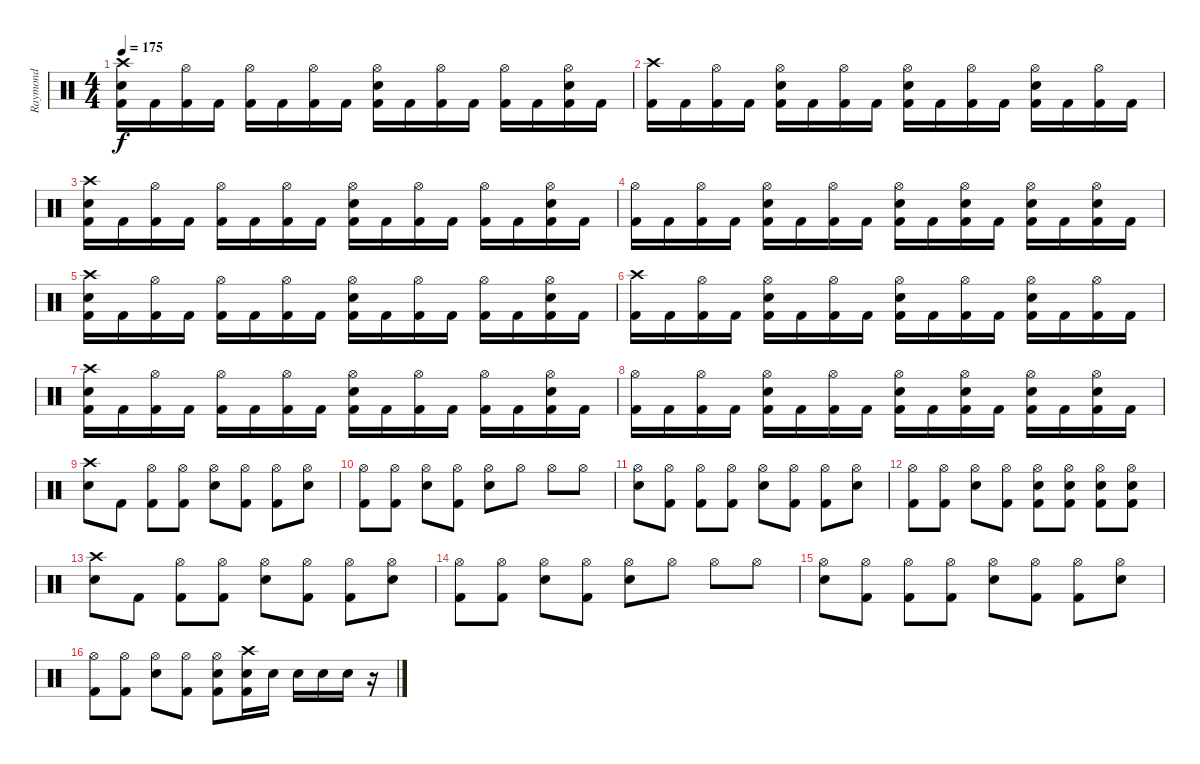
\track ("Raymond" "Raymond") {instrument percussion}
\staff {score}
\articulation defaults
\ts (4 4)
\tempo 175
\clef neutral
\ks c
("Crash high (hit)" "Electric Snare (hit)" "Kick (hit) 2").16{dy f} "Kick (hit) 2".16 ("Hi-Hat (open)" "Kick (hit) 2").16 "Kick (hit) 2".16 ("Hi-Hat (open)" "Kick (hit) 2").16 "Kick (hit) 2".16 ("Hi-Hat (open)" "Kick (hit) 2").16 "Kick (hit) 2".16 ("Hi-Hat (open)" "Electric Snare (hit)" "Kick (hit) 2").16 "Kick (hit) 2".16 ("Hi-Hat (open)" "Kick (hit) 2").16 "Kick (hit) 2".16 ("Hi-Hat (open)" "Kick (hit) 2").16 "Kick (hit) 2".16 ("Hi-Hat (open)" "Electric Snare (hit)" "Kick (hit) 2").16 "Kick (hit) 2".16 |
("Crash high (hit)" "Kick (hit) 2").16 "Kick (hit) 2".16 ("Hi-Hat (open)" "Kick (hit) 2").16 "Kick (hit) 2".16 ("Hi-Hat (open)" "Electric Snare (hit)" "Kick (hit) 2").16 "Kick (hit) 2".16 ("Hi-Hat (open)" "Kick (hit) 2").16 "Kick (hit) 2".16 ("Hi-Hat (open)" "Electric Snare (hit)" "Kick (hit) 2").16 "Kick (hit) 2".16 ("Hi-Hat (open)" "Kick (hit) 2").16 "Kick (hit) 2".16 ("Hi-Hat (open)" "Electric Snare (hit)" "Kick (hit) 2").16 "Kick (hit) 2".16 ("Hi-Hat (open)" "Kick (hit) 2").16 "Kick (hit) 2".16 |
("Crash high (hit)" "Electric Snare (hit)" "Kick (hit) 2").16 "Kick (hit) 2".16 ("Hi-Hat (open)" "Kick (hit) 2").16 "Kick (hit) 2".16 ("Hi-Hat (open)" "Kick (hit) 2").16 "Kick (hit) 2".16 ("Hi-Hat (open)" "Kick (hit) 2").16 "Kick (hit) 2".16 ("Hi-Hat (open)" "Electric Snare (hit)" "Kick (hit) 2").16 "Kick (hit) 2".16 ("Hi-Hat (open)" "Kick (hit) 2").16 "Kick (hit) 2".16 ("Hi-Hat (open)" "Kick (hit) 2").16 "Kick (hit) 2".16 ("Hi-Hat (open)" "Electric Snare (hit)" "Kick (hit) 2").16 "Kick (hit) 2".16 |
("Hi-Hat (open)" "Kick (hit) 2").16 "Kick (hit) 2".16 ("Hi-Hat (open)" "Kick (hit) 2").16 "Kick (hit) 2".16 ("Hi-Hat (open)" "Electric Snare (hit)" "Kick (hit) 2").16 "Kick (hit) 2".16 ("Hi-Hat (open)" "Kick (hit) 2").16 "Kick (hit) 2".16 ("Hi-Hat (open)" "Electric Snare (hit)" "Kick (hit) 2").16 "Kick (hit) 2".16 ("Hi-Hat (open)" "Electric Snare (hit)" "Kick (hit) 2").16 "Kick (hit) 2".16 ("Hi-Hat (open)" "Electric Snare (hit)" "Kick (hit) 2").16 "Kick (hit) 2".16 ("Hi-Hat (open)" "Electric Snare (hit)" "Kick (hit) 2").16 "Kick (hit) 2".16 |
("Crash high (hit)" "Electric Snare (hit)" "Kick (hit) 2").16 "Kick (hit) 2".16 ("Hi-Hat (open)" "Kick (hit) 2").16 "Kick (hit) 2".16 ("Hi-Hat (open)" "Kick (hit) 2").16 "Kick (hit) 2".16 ("Hi-Hat (open)" "Kick (hit) 2").16 "Kick (hit) 2".16 ("Hi-Hat (open)" "Electric Snare (hit)" "Kick (hit) 2").16 "Kick (hit) 2".16 ("Hi-Hat (open)" "Kick (hit) 2").16 "Kick (hit) 2".16 ("Hi-Hat (open)" "Kick (hit) 2").16 "Kick (hit) 2".16 ("Hi-Hat (open)" "Electric Snare (hit)" "Kick (hit) 2").16 "Kick (hit) 2".16 |
("Crash high (hit)" "Kick (hit) 2").16 "Kick (hit) 2".16 ("Hi-Hat (open)" "Kick (hit) 2").16 "Kick (hit) 2".16 ("Hi-Hat (open)" "Electric Snare (hit)" "Kick (hit) 2").16 "Kick (hit) 2".16 ("Hi-Hat (open)" "Kick (hit) 2").16 "Kick (hit) 2".16 ("Hi-Hat (open)" "Electric Snare (hit)" "Kick (hit) 2").16 "Kick (hit) 2".16 ("Hi-Hat (open)" "Kick (hit) 2").16 "Kick (hit) 2".16 ("Hi-Hat (open)" "Electric Snare (hit)" "Kick (hit) 2").16 "Kick (hit) 2".16 ("Hi-Hat (open)" "Kick (hit) 2").16 "Kick (hit) 2".16 |
("Crash high (hit)" "Electric Snare (hit)" "Kick (hit) 2").16 "Kick (hit) 2".16 ("Hi-Hat (open)" "Kick (hit) 2").16 "Kick (hit) 2".16 ("Hi-Hat (open)" "Kick (hit) 2").16 "Kick (hit) 2".16 ("Hi-Hat (open)" "Kick (hit) 2").16 "Kick (hit) 2".16 ("Hi-Hat (open)" "Electric Snare (hit)" "Kick (hit) 2").16 "Kick (hit) 2".16 ("Hi-Hat (open)" "Kick (hit) 2").16 "Kick (hit) 2".16 ("Hi-Hat (open)" "Kick (hit) 2").16 "Kick (hit) 2".16 ("Hi-Hat (open)" "Electric Snare (hit)" "Kick (hit) 2").16 "Kick (hit) 2".16 |
("Hi-Hat (open)" "Kick (hit) 2").16 "Kick (hit) 2".16 ("Hi-Hat (open)" "Kick (hit) 2").16 "Kick (hit) 2".16 ("Hi-Hat (open)" "Electric Snare (hit)" "Kick (hit) 2").16 "Kick (hit) 2".16 ("Hi-Hat (open)" "Kick (hit) 2").16 "Kick (hit) 2".16 ("Hi-Hat (open)" "Electric Snare (hit)" "Kick (hit) 2").16 "Kick (hit) 2".16 ("Hi-Hat (open)" "Electric Snare (hit)" "Kick (hit) 2").16 "Kick (hit) 2".16 ("Hi-Hat (open)" "Electric Snare (hit)" "Kick (hit) 2").16 "Kick (hit) 2".16 ("Hi-Hat (open)" "Electric Snare (hit)" "Kick (hit) 2").16 "Kick (hit) 2".16 |
("Crash high (hit)" "Electric Snare (hit)").8 "Kick (hit) 2".8 ("Hi-Hat (open)" "Kick (hit) 2").8 ("Hi-Hat (open)" "Kick (hit) 2").8 ("Hi-Hat (open)" "Electric Snare (hit)").8 ("Hi-Hat (open)" "Kick (hit) 2").8 ("Hi-Hat (open)" "Kick (hit) 2").8 ("Hi-Hat (open)" "Electric Snare (hit)").8 |
("Hi-Hat (open)" "Kick (hit) 2").8 ("Hi-Hat (open)" "Kick (hit) 2").8 ("Hi-Hat (open)" "Electric Snare (hit)").8 ("Hi-Hat (open)" "Kick (hit) 2").8 ("Hi-Hat (open)" "Electric Snare (hit)").8 "Hi-Hat (open)".8 "Hi-Hat (open)".8 "Hi-Hat (open)".8 |
("Hi-Hat (open)" "Electric Snare (hit)").8 ("Hi-Hat (open)" "Kick (hit) 2").8 ("Hi-Hat (open)" "Kick (hit) 2").8 ("Hi-Hat (open)" "Kick (hit) 2").8 ("Hi-Hat (open)" "Electric Snare (hit)").8 ("Hi-Hat (open)" "Kick (hit) 2").8 ("Hi-Hat (open)" "Kick (hit) 2").8 ("Hi-Hat (open)" "Electric Snare (hit)").8 |
("Hi-Hat (open)" "Kick (hit) 2").8 ("Hi-Hat (open)" "Kick (hit) 2").8 ("Hi-Hat (open)" "Electric Snare (hit)").8 ("Hi-Hat (open)" "Kick (hit) 2").8 ("Hi-Hat (open)" "Electric Snare (hit)" "Kick (hit) 2").8 ("Hi-Hat (open)" "Electric Snare (hit)" "Kick (hit) 2").8 ("Hi-Hat (open)" "Electric Snare (hit)" "Kick (hit) 2").8 ("Hi-Hat (open)" "Electric Snare (hit)" "Kick (hit) 2").8 |
("Crash high (hit)" "Electric Snare (hit)").8 "Kick (hit) 2".8 ("Hi-Hat (open)" "Kick (hit) 2").8 ("Hi-Hat (open)" "Kick (hit) 2").8 ("Hi-Hat (open)" "Electric Snare (hit)").8 ("Hi-Hat (open)" "Kick (hit) 2").8 ("Hi-Hat (open)" "Kick (hit) 2").8 ("Hi-Hat (open)" "Electric Snare (hit)").8 |
("Hi-Hat (open)" "Kick (hit) 2").8 ("Hi-Hat (open)" "Kick (hit) 2").8 ("Hi-Hat (open)" "Electric Snare (hit)").8 ("Hi-Hat (open)" "Kick (hit) 2").8 ("Hi-Hat (open)" "Electric Snare (hit)").8 "Hi-Hat (open)".8 "Hi-Hat (open)".8 "Hi-Hat (open)".8 |
("Hi-Hat (open)" "Electric Snare (hit)").8 ("Hi-Hat (open)" "Kick (hit) 2").8 ("Hi-Hat (open)" "Kick (hit) 2").8 ("Hi-Hat (open)" "Kick (hit) 2").8 ("Hi-Hat (open)" "Electric Snare (hit)").8 ("Hi-Hat (open)" "Kick (hit) 2").8 ("Hi-Hat (open)" "Kick (hit) 2").8 ("Hi-Hat (open)" "Electric Snare (hit)").8 |
("Hi-Hat (open)" "Kick (hit) 2").8 ("Hi-Hat (open)" "Kick (hit) 2").8 ("Hi-Hat (open)" "Electric Snare (hit)").8 ("Hi-Hat (open)" "Kick (hit) 2").8 ("Hi-Hat (open)" "Electric Snare (hit)" "Kick (hit) 2").8 ("Crash high (hit)" "Electric Snare (hit)" "Kick (hit) 2").16 "Electric Snare (hit)".16 "Electric Snare (hit)".16 "Electric Snare (hit)".16 "Electric Snare (hit)".16 r.16
